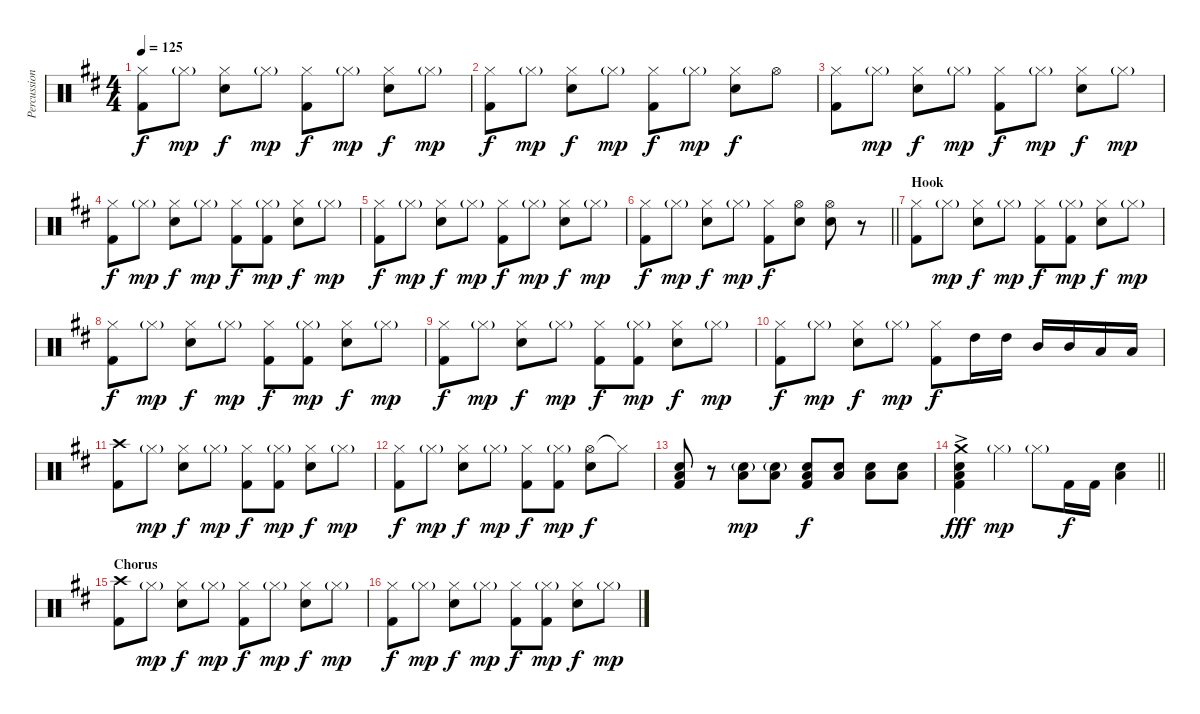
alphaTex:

\track ("Percussion" "Percussion") {instrument percussion}
\staff {score}
\articulation defaults
\ts (4 4)
\tempo 125
\clef neutral
\ks bminor
("Hi-Hat (closed)" "Kick (hit) 2").8{dy f} "Hi-Hat (closed)"{g}.8{dy mp} ("Hi-Hat (closed)" "Snare (hit) 2").8{dy f} "Hi-Hat (closed)"{g}.8{dy mp} ("Hi-Hat (closed)" "Kick (hit) 2").8{dy f} "Hi-Hat (closed)"{g}.8{dy mp} ("Hi-Hat (closed)" "Snare (hit) 2").8{dy f} "Hi-Hat (closed)"{g}.8{dy mp} |
("Hi-Hat (closed)" "Kick (hit) 2").8{dy f} "Hi-Hat (closed)"{g}.8{dy mp} ("Hi-Hat (closed)" "Snare (hit) 2").8{dy f} "Hi-Hat (closed)"{g}.8{dy mp} ("Hi-Hat (closed)" "Kick (hit) 2").8{dy f} "Hi-Hat (closed)"{g}.8{dy mp} ("Hi-Hat (closed)" "Snare (hit) 2").8{dy f} "Hi-Hat (open)".8 |
("Hi-Hat (closed)" "Kick (hit) 2").8 "Hi-Hat (closed)"{g}.8{dy mp} ("Hi-Hat (closed)" "Snare (hit) 2").8{dy f} "Hi-Hat (closed)"{g}.8{dy mp} ("Hi-Hat (closed)" "Kick (hit) 2").8{dy f} "Hi-Hat (closed)"{g}.8{dy mp} ("Hi-Hat (closed)" "Snare (hit) 2").8{dy f} "Hi-Hat (closed)"{g}.8{dy mp} |
("Hi-Hat (closed)" "Kick (hit) 2").8{dy f} "Hi-Hat (closed)"{g}.8{dy mp} ("Hi-Hat (closed)" "Snare (hit) 2").8{dy f} "Hi-Hat (closed)"{g}.8{dy mp} ("Hi-Hat (closed)" "Kick (hit) 2").8{dy f} ("Hi-Hat (closed)"{g} "Kick (hit) 2").8{dy mp} ("Hi-Hat (closed)" "Snare (hit) 2").8{dy f} "Hi-Hat (closed)"{g}.8{dy mp} |
("Hi-Hat (closed)" "Kick (hit) 2").8{dy f} "Hi-Hat (closed)"{g}.8{dy mp} ("Hi-Hat (closed)" "Snare (hit) 2").8{dy f} "Hi-Hat (closed)"{g}.8{dy mp} ("Hi-Hat (closed)" "Kick (hit) 2").8{dy f} "Hi-Hat (closed)"{g}.8{dy mp} ("Hi-Hat (closed)" "Snare (hit) 2").8{dy f} "Hi-Hat (closed)"{g}.8{dy mp} |
\barLineRight lightlight
("Hi-Hat (closed)" "Kick (hit) 2").8{dy f} "Hi-Hat (closed)"{g}.8{dy mp} ("Hi-Hat (closed)" "Snare (hit) 2").8{dy f} "Hi-Hat (closed)"{g}.8{dy mp} ("Hi-Hat (closed)" "Kick (hit) 2").8{dy f} ("Hi-Hat (open)" "Snare (hit) 2").8 ("Hi-Hat (open)" "Snare (hit) 2").8 r.8 |
\section ("" "Hook")
("Hi-Hat (closed)" "Kick (hit) 2").8 "Hi-Hat (closed)"{g}.8{dy mp} ("Hi-Hat (closed)" "Snare (hit) 2").8{dy f} "Hi-Hat (closed)"{g}.8{dy mp} ("Hi-Hat (closed)" "Kick (hit) 2").8{dy f} ("Hi-Hat (closed)"{g} "Kick (hit) 2").8{dy mp} ("Hi-Hat (closed)" "Snare (hit) 2").8{dy f} "Hi-Hat (closed)"{g}.8{dy mp} |
("Hi-Hat (closed)" "Kick (hit) 2").8{dy f} "Hi-Hat (closed)"{g}.8{dy mp} ("Hi-Hat (closed)" "Snare (hit) 2").8{dy f} "Hi-Hat (closed)"{g}.8{dy mp} ("Hi-Hat (closed)" "Kick (hit) 2").8{dy f} ("Hi-Hat (closed)"{g} "Kick (hit) 2").8{dy mp} ("Hi-Hat (closed)" "Snare (hit) 2").8{dy f} "Hi-Hat (closed)"{g}.8{dy mp} |
("Hi-Hat (closed)" "Kick (hit) 2").8{dy f} "Hi-Hat (closed)"{g}.8{dy mp} ("Hi-Hat (closed)" "Snare (hit) 2").8{dy f} "Hi-Hat (closed)"{g}.8{dy mp} ("Hi-Hat (closed)" "Kick (hit) 2").8{dy f} ("Hi-Hat (closed)"{g} "Kick (hit) 2").8{dy mp} ("Hi-Hat (closed)" "Snare (hit) 2").8{dy f} "Hi-Hat (closed)"{g}.8{dy mp} |
("Hi-Hat (closed)" "Kick (hit) 2").8{dy f} "Hi-Hat (closed)"{g}.8{dy mp} ("Hi-Hat (closed)" "Snare (hit) 2").8{dy f} "Hi-Hat (closed)"{g}.8{dy mp} ("Hi-Hat (closed)" "Kick (hit) 2").8{dy f} "High Tom (hit)".16 "High Tom (hit)".16 "Mid Tom (hit)".16 "Mid Tom (hit)".16 "Low Tom (hit)".16 "Low Tom (hit)".16 |
("Crash high (hit)" "Kick (hit) 2").8 "Hi-Hat (closed)"{g}.8{dy mp} ("Hi-Hat (closed)" "Snare (hit) 2").8{dy f} "Hi-Hat (closed)"{g}.8{dy mp} ("Hi-Hat (closed)" "Kick (hit) 2").8{dy f} ("Hi-Hat (closed)"{g} "Kick (hit) 2").8{dy mp} ("Hi-Hat (closed)" "Snare (hit) 2").8{dy f} "Hi-Hat (closed)"{g}.8{dy mp} |
("Hi-Hat (closed)" "Kick (hit) 2").8{dy f} "Hi-Hat (closed)"{g}.8{dy mp} ("Hi-Hat (closed)" "Snare (hit) 2").8{dy f} "Hi-Hat (closed)"{g}.8{dy mp} ("Hi-Hat (closed)" "Kick (hit) 2").8{dy f} ("Hi-Hat (closed)"{g} "Kick (hit) 2").8{dy mp} ("Hi-Hat (open)" "Snare (hit) 2").8{dy f} "Hi-Hat (closed)"{t}.8 |
("Low Floor Tom (hit)" "Snare (hit) 2" "Kick (hit) 2").8 r.8 ("Low Floor Tom (hit)" "Electric Snare (hit)"{g}).8{dy mp} ("Low Floor Tom (hit)" "Electric Snare (hit)"{g}).8 ("Low Floor Tom (hit)" "Electric Snare (hit)" "Kick (hit) 2").8{dy f} ("Low Floor Tom (hit)" "Electric Snare (hit)").8 ("Low Floor Tom (hit)" "Snare (hit) 2").8 ("Low Floor Tom (hit)" "Snare (hit) 2").8 |
\barLineRight lightlight
("Crash medium (hit)"{ac} "Low Floor Tom (hit)" "Snare (hit) 2"{ac} "Kick (hit) 2").4{dy fff} "Hi-Hat (closed)"{g}.4{dy mp} "Hi-Hat (closed)"{g}.8 "Kick (hit) 2".16{dy f} "Kick (hit) 2".16 ("Low Floor Tom (hit)" "Snare (hit) 2").4 |
\section ("" "Chorus")
("Crash high (hit)" "Kick (hit) 2").8 "Hi-Hat (closed)"{g}.8{dy mp} ("Hi-Hat (closed)" "Snare (hit) 2").8{dy f} "Hi-Hat (closed)"{g}.8{dy mp} ("Hi-Hat (closed)" "Kick (hit) 2").8{dy f} "Hi-Hat (closed)"{g}.8{dy mp} ("Hi-Hat (closed)" "Snare (hit) 2").8{dy f} "Hi-Hat (closed)"{g}.8{dy mp} |
("Hi-Hat (closed)" "Kick (hit) 2").8{dy f} "Hi-Hat (closed)"{g}.8{dy mp} ("Hi-Hat (closed)" "Snare (hit) 2").8{dy f} "Hi-Hat (closed)"{g}.8{dy mp} ("Hi-Hat (closed)" "Kick (hit) 2").8{dy f} ("Hi-Hat (closed)"{g} "Kick (hit) 2").8{dy mp} ("Hi-Hat (closed)" "Snare (hit) 2").8{dy f} "Hi-Hat (closed)"{g}.8{dy mp}
